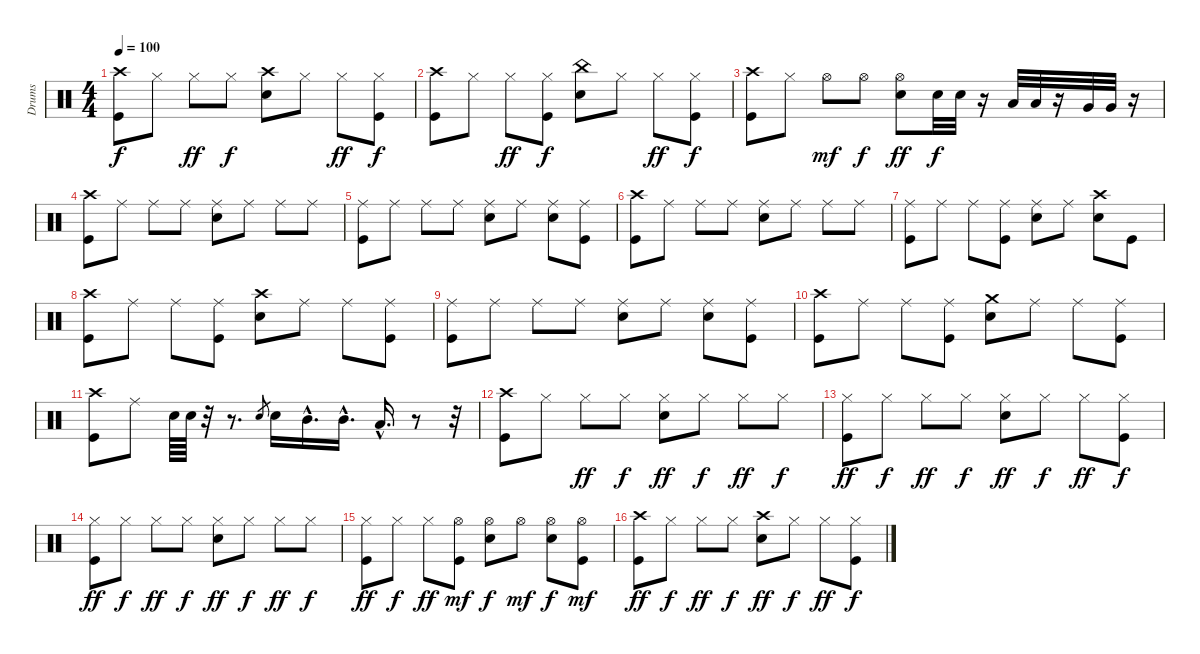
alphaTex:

\track ("Drums" "Drums") {instrument percussion}
\staff {score}
\articulation defaults
\ts (4 4)
\tempo 100
\clef neutral
\ks c
("Crash high (hit)" "Kick (hit)").8{dy f} "Hi-Hat (closed)".8 "Hi-Hat (closed)".8{dy ff} "Hi-Hat (closed)".8{dy f} ("Crash high (hit)" "Snare (hit) 2").8 "Hi-Hat (closed)".8 "Hi-Hat (closed)".8{dy ff} ("Hi-Hat (closed)" "Kick (hit)").8{dy f} |
("Crash high (hit)" "Kick (hit)").8 "Hi-Hat (closed)".8 "Hi-Hat (closed)".8{dy ff} ("Hi-Hat (closed)" "Kick (hit)").8{dy f} ("China (hit)" "Snare (hit) 2").8 "Hi-Hat (closed)".8 "Hi-Hat (closed)".8{dy ff} ("Hi-Hat (closed)" "Kick (hit)").8{dy f} |
("Crash high (hit)" "Kick (hit)").8 "Hi-Hat (closed)".8 "Hi-Hat (open)".8{dy mf} "Hi-Hat (open)".8{dy f} ("Hi-Hat (open)" "Snare (hit) 2").8{dy ff} "Snare (hit) 2".32{dy f} "Snare (hit) 2".32 r.16 "Low Tom (hit)".32 "Low Tom (hit)".32 r.16 "Very Low Tom (hit)".32 "Very Low Tom (hit)".32 r.16 |
("Crash high (hit)" "Kick (hit)").8 "Ride (middle)".8 "Ride (middle)".8 "Ride (middle)".8 ("Ride (middle)" "Snare (hit) 2").8 "Ride (middle)".8 "Ride (middle)".8 "Ride (middle)".8 |
("Ride (middle)" "Kick (hit)").8 "Ride (middle)".8 "Ride (middle)".8 "Ride (middle)".8 ("Ride (middle)" "Snare (hit) 2").8 "Ride (middle)".8 ("Ride (middle)" "Snare (hit) 2").8 ("Ride (middle)" "Kick (hit)").8 |
("Crash high (hit)" "Kick (hit)").8 "Ride (middle)".8 "Ride (middle)".8 "Ride (middle)".8 ("Ride (middle)" "Snare (hit) 2").8 "Ride (middle)".8 "Ride (middle)".8 "Ride (middle)".8 |
("Ride (middle)" "Kick (hit)").8 "Ride (middle)".8 "Ride (middle)".8 ("Ride (middle)" "Kick (hit)").8 ("Ride (middle)" "Snare (hit) 2").8 "Ride (middle)".8 ("Crash high (hit)" "Snare (hit) 2").8 "Kick (hit)".8 |
("Crash high (hit)" "Kick (hit)").8 "Ride (middle)".8 "Ride (middle)".8 ("Ride (middle)" "Kick (hit)").8 ("Crash high (hit)" "Snare (hit) 2").8 "Ride (middle)".8 "Ride (middle)".8 ("Ride (middle)" "Kick (hit)").8 |
("Ride (middle)" "Kick (hit)").8 "Ride (middle)".8 "Ride (middle)".8 "Ride (middle)".8 ("Ride (middle)" "Snare (hit) 2").8 "Ride (middle)".8 ("Ride (middle)" "Snare (hit) 2").8 ("Ride (middle)" "Kick (hit)").8 |
("Crash high (hit)" "Kick (hit)").8 "Ride (middle)".8 "Ride (middle)".8 ("Ride (middle)" "Kick (hit)").8 ("Crash medium (hit)" "Snare (hit) 2").8 "Ride (middle)".8 "Ride (middle)".8 ("Ride (middle)" "Kick (hit)").8 |
("Crash high (hit)" "Kick (hit)").8 "Ride (middle)".8 "Snare (hit) 2".64 "Snare (hit) 2".64 r.32 r.8{d} "Snare (hit) 2".8{gr} "Snare (hit) 2".16 "Mid Tom (hit)"{hac}.16{d} "Mid Tom (hit)"{hac}.16{d} "Low Tom (hit)"{hac}.16{d} r.8 r.32 |
("Crash high (hit)" "Kick (hit)").8 "Hi-Hat (closed)".8 "Hi-Hat (closed)".8{dy ff} "Hi-Hat (closed)".8{dy f} ("Hi-Hat (closed)" "Snare (hit) 2").8{dy ff} "Hi-Hat (closed)".8{dy f} "Hi-Hat (closed)".8{dy ff} "Hi-Hat (closed)".8{dy f} |
("Hi-Hat (closed)" "Kick (hit)").8{dy ff} "Hi-Hat (closed)".8{dy f} "Hi-Hat (closed)".8{dy ff} "Hi-Hat (closed)".8{dy f} ("Hi-Hat (closed)" "Snare (hit) 2").8{dy ff} "Hi-Hat (closed)".8{dy f} "Hi-Hat (closed)".8{dy ff} ("Hi-Hat (closed)" "Kick (hit)").8{dy f} |
("Hi-Hat (closed)" "Kick (hit)").8{dy ff} "Hi-Hat (closed)".8{dy f} "Hi-Hat (closed)".8{dy ff} "Hi-Hat (closed)".8{dy f} ("Hi-Hat (closed)" "Snare (hit) 2").8{dy ff} "Hi-Hat (closed)".8{dy f} "Hi-Hat (closed)".8{dy ff} "Hi-Hat (closed)".8{dy f} |
("Hi-Hat (closed)" "Kick (hit)").8{dy ff} "Hi-Hat (closed)".8{dy f} "Hi-Hat (closed)".8{dy ff} ("Hi-Hat (open)" "Kick (hit)").8{dy mf} ("Hi-Hat (open)" "Snare (hit) 2").8{dy f} "Hi-Hat (open)".8{dy mf} ("Hi-Hat (open)" "Snare (hit) 2").8{dy f} ("Hi-Hat (open)" "Kick (hit)").8{dy mf} |
("Crash high (hit)" "Kick (hit)").8{dy ff} "Hi-Hat (closed)".8{dy f} "Hi-Hat (closed)".8{dy ff} "Hi-Hat (closed)".8{dy f} ("Crash high (hit)" "Snare (hit) 2").8{dy ff} "Hi-Hat (closed)".8{dy f} "Hi-Hat (closed)".8{dy ff} ("Hi-Hat (closed)" "Kick (hit)").8{dy f}
